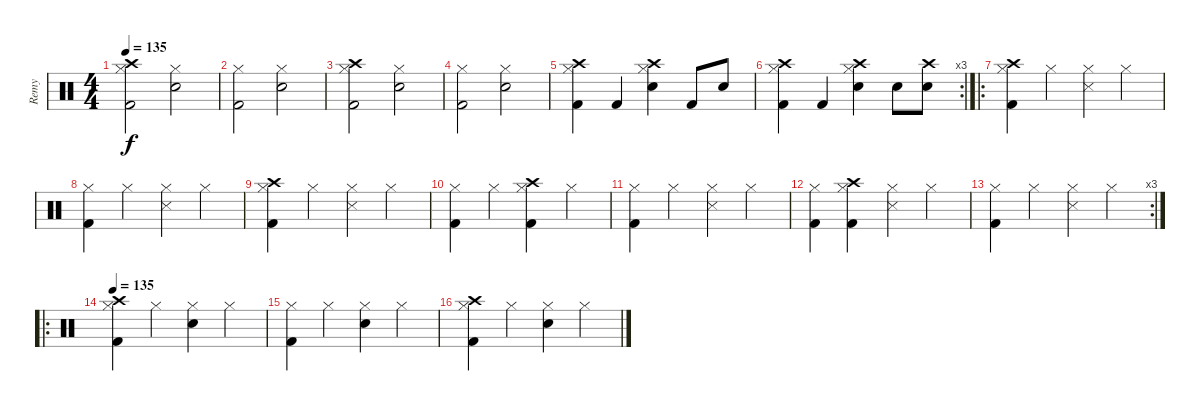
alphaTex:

\track ("Remy" "Remy") {instrument percussion}
\staff {score}
\articulation defaults
\ts (4 4)
\tempo 135
\clef neutral
\ks c
("Crash high (hit)" "Hi-Hat (closed)" "Kick (hit) 2").2{dy f} ("Snare (hit) 2" "Hi-Hat (closed)").2 |
("Hi-Hat (closed)" "Kick (hit) 2").2 ("Snare (hit) 2" "Hi-Hat (closed)").2 |
("Crash high (hit)" "Hi-Hat (closed)" "Kick (hit) 2").2 ("Snare (hit) 2" "Hi-Hat (closed)").2 |
("Hi-Hat (closed)" "Kick (hit) 2").2 ("Snare (hit) 2" "Hi-Hat (closed)").2 |
("Crash high (hit)" "Hi-Hat (closed)" "Kick (hit) 2").4 "Kick (hit) 2".4 ("Crash high (hit)" "Snare (hit) 2" "Hi-Hat (closed)").4 "Kick (hit) 2".8 "Snare (hit) 2".8 |
\rc 3
("Crash high (hit)" "Hi-Hat (closed)" "Kick (hit) 2").4 "Kick (hit) 2".4 ("Crash high (hit)" "Snare (hit) 2" "Hi-Hat (closed)").4 "Snare (hit) 2".8 ("Crash high (hit)" "Snare (hit) 2").8 |
\ro
("Hi-Hat (closed)" "Crash high (hit)" "Kick (hit) 2").4 "Hi-Hat (closed)".4 ("Hi-Hat (closed)" "Snare (side stick) 3").4 "Hi-Hat (closed)".4 |
("Hi-Hat (closed)" "Kick (hit) 2").4 "Hi-Hat (closed)".4 ("Hi-Hat (closed)" "Snare (side stick) 3").4 "Hi-Hat (closed)".4 |
("Hi-Hat (closed)" "Crash high (hit)" "Kick (hit) 2").4 "Hi-Hat (closed)".4 ("Hi-Hat (closed)" "Snare (side stick) 3").4 "Hi-Hat (closed)".4 |
("Hi-Hat (closed)" "Kick (hit) 2").4 "Hi-Hat (closed)".4 ("Hi-Hat (closed)" "Crash high (hit)" "Kick (hit) 2").4 "Hi-Hat (closed)".4 |
("Hi-Hat (closed)" "Kick (hit) 2").4 "Hi-Hat (closed)".4 ("Hi-Hat (closed)" "Snare (side stick) 3").4 "Hi-Hat (closed)".4 |
("Hi-Hat (closed)" "Kick (hit) 2").4 ("Hi-Hat (closed)" "Crash high (hit)" "Kick (hit) 2").4 ("Hi-Hat (closed)" "Snare (side stick) 3").4 "Hi-Hat (closed)".4 |
\rc 3
("Hi-Hat (closed)" "Kick (hit) 2").4 "Hi-Hat (closed)".4 ("Hi-Hat (closed)" "Snare (side stick) 3").4 "Hi-Hat (closed)".4 |
\ro
\tempo 135
("Crash high (hit)" "Hi-Hat (closed)" "Kick (hit) 2").4 "Hi-Hat (closed)".4 ("Snare (hit) 2" "Hi-Hat (closed)").4 "Hi-Hat (closed)".4 |
("Hi-Hat (closed)" "Kick (hit) 2").4 "Hi-Hat (closed)".4 ("Snare (hit) 2" "Hi-Hat (closed)").4 "Hi-Hat (closed)".4 |
("Crash high (hit)" "Hi-Hat (closed)" "Kick (hit) 2").4 "Hi-Hat (closed)".4 ("Snare (hit) 2" "Hi-Hat (closed)").4 "Hi-Hat (closed)".4
